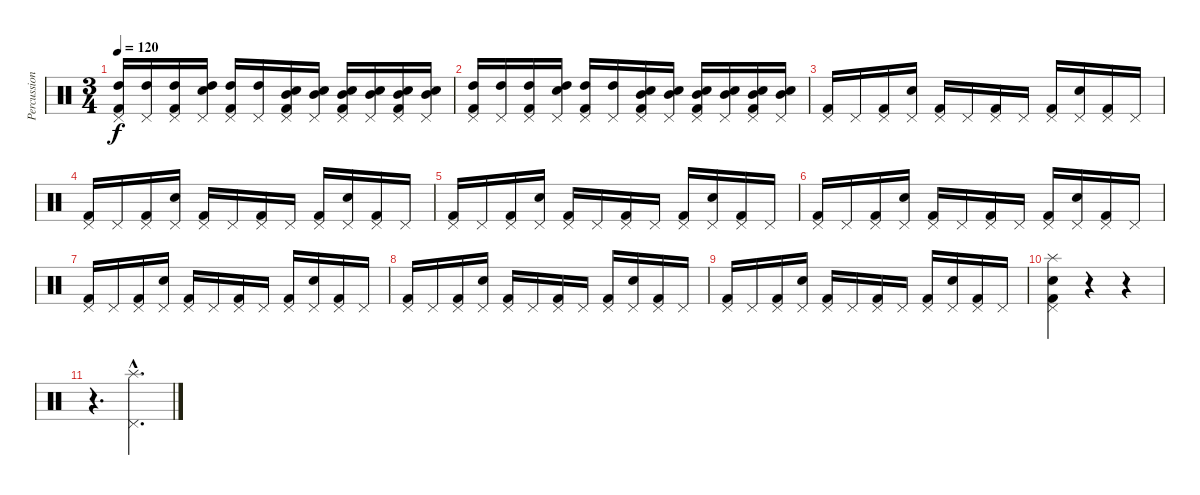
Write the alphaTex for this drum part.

\track ("Percussion" "Percussion") {instrument percussion}
\staff {score}
\articulation defaults
\ts (3 4)
\tempo 120
\clef neutral
\ks c
("Kick (hit) 2" "Pedal Hi-Hat (hit)" "High Tom (hit)").16{dy f} ("Pedal Hi-Hat (hit)" "High Tom (hit)").16 ("Kick (hit) 2" "Pedal Hi-Hat (hit)" "High Tom (hit)").16 ("Pedal Hi-Hat (hit)" "Electric Snare (hit)" "High Tom (hit)").16 ("Kick (hit) 2" "Pedal Hi-Hat (hit)" "High Tom (hit)").16 ("Pedal Hi-Hat (hit)" "High Tom (hit)").16 ("Kick (hit) 2" "Pedal Hi-Hat (hit)" "Electric Snare (hit)" "Mid Tom (hit)").16 ("Pedal Hi-Hat (hit)" "Electric Snare (hit)" "Mid Tom (hit)").16 ("Kick (hit) 2" "Pedal Hi-Hat (hit)" "Electric Snare (hit)" "Mid Tom (hit)").16 ("Pedal Hi-Hat (hit)" "Electric Snare (hit)" "Mid Tom (hit)").16 ("Kick (hit) 2" "Pedal Hi-Hat (hit)" "Electric Snare (hit)" "Mid Tom (hit)").16 ("Pedal Hi-Hat (hit)" "Electric Snare (hit)" "Mid Tom (hit)").16 |
("Kick (hit) 2" "Pedal Hi-Hat (hit)" "High Tom (hit)").16 ("Pedal Hi-Hat (hit)" "High Tom (hit)").16 ("Kick (hit) 2" "Pedal Hi-Hat (hit)" "High Tom (hit)").16 ("Pedal Hi-Hat (hit)" "Electric Snare (hit)" "High Tom (hit)").16 ("Kick (hit) 2" "Pedal Hi-Hat (hit)" "High Tom (hit)").16 ("Pedal Hi-Hat (hit)" "High Tom (hit)").16 ("Kick (hit) 2" "Pedal Hi-Hat (hit)" "Electric Snare (hit)" "Mid Tom (hit)").16 ("Pedal Hi-Hat (hit)" "Electric Snare (hit)" "Mid Tom (hit)").16 ("Kick (hit) 2" "Pedal Hi-Hat (hit)" "Electric Snare (hit)" "Mid Tom (hit)").16 ("Pedal Hi-Hat (hit)" "Electric Snare (hit)" "Mid Tom (hit)").16 ("Kick (hit) 2" "Pedal Hi-Hat (hit)" "Electric Snare (hit)" "Mid Tom (hit)").16 ("Pedal Hi-Hat (hit)" "Electric Snare (hit)" "Mid Tom (hit)").16 |
("Kick (hit) 2" "Pedal Hi-Hat (hit)").16 "Pedal Hi-Hat (hit)".16 ("Kick (hit) 2" "Pedal Hi-Hat (hit)").16 ("Pedal Hi-Hat (hit)" "Electric Snare (hit)").16 ("Kick (hit) 2" "Pedal Hi-Hat (hit)").16 "Pedal Hi-Hat (hit)".16 ("Kick (hit) 2" "Pedal Hi-Hat (hit)").16 "Pedal Hi-Hat (hit)".16 ("Kick (hit) 2" "Pedal Hi-Hat (hit)").16 ("Pedal Hi-Hat (hit)" "Electric Snare (hit)").16 ("Kick (hit) 2" "Pedal Hi-Hat (hit)").16 "Pedal Hi-Hat (hit)".16 |
("Kick (hit) 2" "Pedal Hi-Hat (hit)").16 "Pedal Hi-Hat (hit)".16 ("Kick (hit) 2" "Pedal Hi-Hat (hit)").16 ("Pedal Hi-Hat (hit)" "Electric Snare (hit)").16 ("Kick (hit) 2" "Pedal Hi-Hat (hit)").16 "Pedal Hi-Hat (hit)".16 ("Kick (hit) 2" "Pedal Hi-Hat (hit)").16 "Pedal Hi-Hat (hit)".16 ("Kick (hit) 2" "Pedal Hi-Hat (hit)").16 ("Pedal Hi-Hat (hit)" "Electric Snare (hit)").16 ("Kick (hit) 2" "Pedal Hi-Hat (hit)").16 "Pedal Hi-Hat (hit)".16 |
("Kick (hit) 2" "Pedal Hi-Hat (hit)").16 "Pedal Hi-Hat (hit)".16 ("Kick (hit) 2" "Pedal Hi-Hat (hit)").16 ("Pedal Hi-Hat (hit)" "Electric Snare (hit)").16 ("Kick (hit) 2" "Pedal Hi-Hat (hit)").16 "Pedal Hi-Hat (hit)".16 ("Kick (hit) 2" "Pedal Hi-Hat (hit)").16 "Pedal Hi-Hat (hit)".16 ("Kick (hit) 2" "Pedal Hi-Hat (hit)").16 ("Pedal Hi-Hat (hit)" "Electric Snare (hit)").16 ("Kick (hit) 2" "Pedal Hi-Hat (hit)").16 "Pedal Hi-Hat (hit)".16 |
("Kick (hit) 2" "Pedal Hi-Hat (hit)").16 "Pedal Hi-Hat (hit)".16 ("Kick (hit) 2" "Pedal Hi-Hat (hit)").16 ("Pedal Hi-Hat (hit)" "Electric Snare (hit)").16 ("Kick (hit) 2" "Pedal Hi-Hat (hit)").16 "Pedal Hi-Hat (hit)".16 ("Kick (hit) 2" "Pedal Hi-Hat (hit)").16 "Pedal Hi-Hat (hit)".16 ("Kick (hit) 2" "Pedal Hi-Hat (hit)").16 ("Pedal Hi-Hat (hit)" "Electric Snare (hit)").16 ("Kick (hit) 2" "Pedal Hi-Hat (hit)").16 "Pedal Hi-Hat (hit)".16 |
("Kick (hit) 2" "Pedal Hi-Hat (hit)").16 "Pedal Hi-Hat (hit)".16 ("Kick (hit) 2" "Pedal Hi-Hat (hit)").16 ("Pedal Hi-Hat (hit)" "Electric Snare (hit)").16 ("Kick (hit) 2" "Pedal Hi-Hat (hit)").16 "Pedal Hi-Hat (hit)".16 ("Kick (hit) 2" "Pedal Hi-Hat (hit)").16 "Pedal Hi-Hat (hit)".16 ("Kick (hit) 2" "Pedal Hi-Hat (hit)").16 ("Pedal Hi-Hat (hit)" "Electric Snare (hit)").16 ("Kick (hit) 2" "Pedal Hi-Hat (hit)").16 "Pedal Hi-Hat (hit)".16 |
("Kick (hit) 2" "Pedal Hi-Hat (hit)").16 "Pedal Hi-Hat (hit)".16 ("Kick (hit) 2" "Pedal Hi-Hat (hit)").16 ("Pedal Hi-Hat (hit)" "Electric Snare (hit)").16 ("Kick (hit) 2" "Pedal Hi-Hat (hit)").16 "Pedal Hi-Hat (hit)".16 ("Kick (hit) 2" "Pedal Hi-Hat (hit)").16 "Pedal Hi-Hat (hit)".16 ("Kick (hit) 2" "Pedal Hi-Hat (hit)").16 ("Pedal Hi-Hat (hit)" "Electric Snare (hit)").16 ("Kick (hit) 2" "Pedal Hi-Hat (hit)").16 "Pedal Hi-Hat (hit)".16 |
("Kick (hit) 2" "Pedal Hi-Hat (hit)").16 "Pedal Hi-Hat (hit)".16 ("Kick (hit) 2" "Pedal Hi-Hat (hit)").16 ("Pedal Hi-Hat (hit)" "Electric Snare (hit)").16 ("Kick (hit) 2" "Pedal Hi-Hat (hit)").16 "Pedal Hi-Hat (hit)".16 ("Kick (hit) 2" "Pedal Hi-Hat (hit)").16 "Pedal Hi-Hat (hit)".16 ("Kick (hit) 2" "Pedal Hi-Hat (hit)").16 ("Pedal Hi-Hat (hit)" "Electric Snare (hit)").16 ("Kick (hit) 2" "Pedal Hi-Hat (hit)").16 "Pedal Hi-Hat (hit)".16 |
("Kick (hit) 2" "Pedal Hi-Hat (hit)" "Electric Snare (hit)" "Splash (hit)").4 r.4 r.4 |
r.4{d} ("Pedal Hi-Hat (hit)"{hac} "Splash (hit)"{hac}).4{d}
